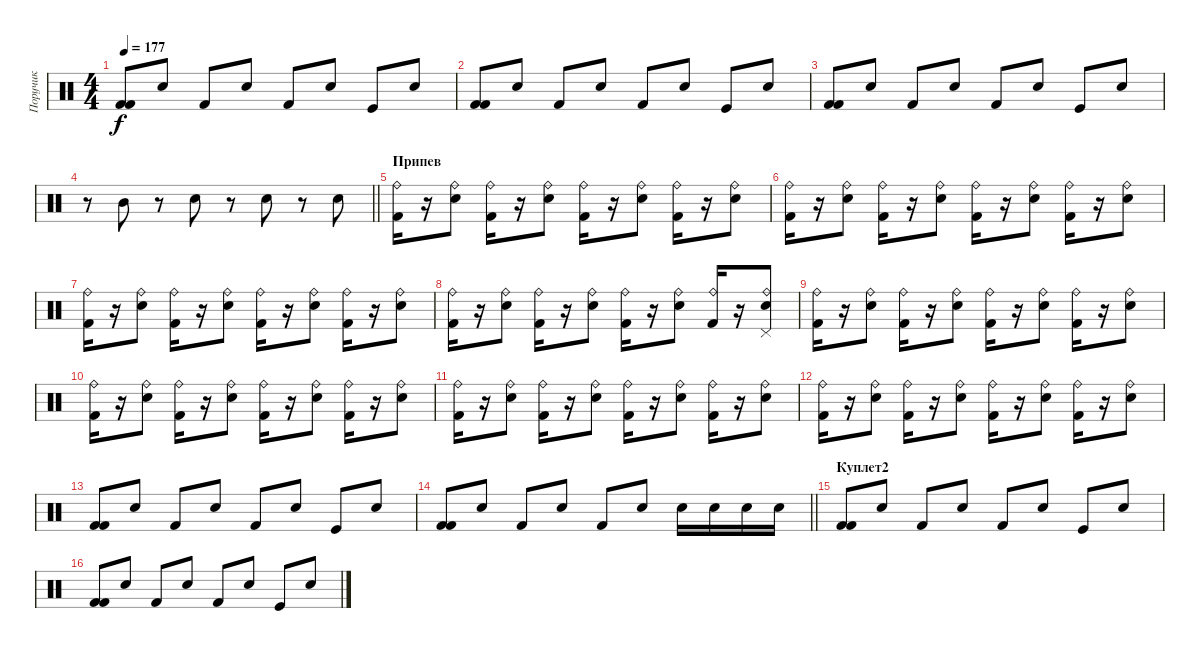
\track ("Поручик" "Поручик") {instrument percussion}
\staff {score}
\articulation defaults
\ts (4 4)
\tempo 177
\clef neutral
\ks c
("Kick (hit) 2" "Kick (hit) 2").8{dy f} "Snare (hit) 2".8 "Kick (hit) 2".8 "Snare (hit) 2".8 "Kick (hit) 2".8 "Snare (hit) 2".8 "Kick (hit)".8 "Snare (hit) 2".8 |
("Kick (hit) 2" "Kick (hit) 2").8 "Snare (hit) 2".8 "Kick (hit) 2".8 "Snare (hit) 2".8 "Kick (hit) 2".8 "Snare (hit) 2".8 "Kick (hit)".8 "Snare (hit) 2".8 |
("Kick (hit) 2" "Kick (hit) 2").8 "Snare (hit) 2".8 "Kick (hit) 2".8 "Snare (hit) 2".8 "Kick (hit) 2".8 "Snare (hit) 2".8 "Kick (hit)".8 "Snare (hit) 2".8 |
\barLineRight lightlight
r.8 "Mid Tom (hit)".8 r.8 "Snare (hit) 2".8 r.8 "Snare (hit) 2".8 r.8 "Snare (hit) 2".8 |
\section ("" "Припев")
("Ride (bell)" "Kick (hit) 2").16 r.16 ("Ride (bell)" "Snare (hit) 2").8 ("Ride (bell)" "Kick (hit) 2").16 r.16 ("Ride (bell)" "Snare (hit) 2").8 ("Ride (bell)" "Kick (hit) 2").16 r.16 ("Ride (bell)" "Snare (hit) 2").8 ("Ride (bell)" "Kick (hit) 2").16 r.16 ("Ride (bell)" "Snare (hit) 2").8 |
("Ride (bell)" "Kick (hit) 2").16 r.16 ("Ride (bell)" "Snare (hit) 2").8 ("Ride (bell)" "Kick (hit) 2").16 r.16 ("Ride (bell)" "Snare (hit) 2").8 ("Ride (bell)" "Kick (hit) 2").16 r.16 ("Ride (bell)" "Snare (hit) 2").8 ("Ride (bell)" "Kick (hit) 2").16 r.16 ("Ride (bell)" "Snare (hit) 2").8 |
("Ride (bell)" "Kick (hit) 2").16 r.16 ("Ride (bell)" "Snare (hit) 2").8 ("Ride (bell)" "Kick (hit) 2").16 r.16 ("Ride (bell)" "Snare (hit) 2").8 ("Ride (bell)" "Kick (hit) 2").16 r.16 ("Ride (bell)" "Snare (hit) 2").8 ("Ride (bell)" "Kick (hit) 2").16 r.16 ("Ride (bell)" "Snare (hit) 2").8 |
("Ride (bell)" "Kick (hit) 2").16 r.16 ("Ride (bell)" "Snare (hit) 2").8 ("Ride (bell)" "Kick (hit) 2").16 r.16 ("Ride (bell)" "Snare (hit) 2").8 ("Ride (bell)" "Kick (hit) 2").16 r.16 ("Ride (bell)" "Snare (hit) 2").8 ("Ride (bell)" "Kick (hit) 2").16 r.16 ("Ride (bell)" "Snare (hit) 2" "Pedal Hi-Hat (hit)").8 |
("Ride (bell)" "Kick (hit) 2").16 r.16 ("Ride (bell)" "Snare (hit) 2").8 ("Ride (bell)" "Kick (hit) 2").16 r.16 ("Ride (bell)" "Snare (hit) 2").8 ("Ride (bell)" "Kick (hit) 2").16 r.16 ("Ride (bell)" "Snare (hit) 2").8 ("Ride (bell)" "Kick (hit) 2").16 r.16 ("Ride (bell)" "Snare (hit) 2").8 |
("Ride (bell)" "Kick (hit) 2").16 r.16 ("Ride (bell)" "Snare (hit) 2").8 ("Ride (bell)" "Kick (hit) 2").16 r.16 ("Ride (bell)" "Snare (hit) 2").8 ("Ride (bell)" "Kick (hit) 2").16 r.16 ("Ride (bell)" "Snare (hit) 2").8 ("Ride (bell)" "Kick (hit) 2").16 r.16 ("Ride (bell)" "Snare (hit) 2").8 |
("Ride (bell)" "Kick (hit) 2").16 r.16 ("Ride (bell)" "Snare (hit) 2").8 ("Ride (bell)" "Kick (hit) 2").16 r.16 ("Ride (bell)" "Snare (hit) 2").8 ("Ride (bell)" "Kick (hit) 2").16 r.16 ("Ride (bell)" "Snare (hit) 2").8 ("Ride (bell)" "Kick (hit) 2").16 r.16 ("Ride (bell)" "Snare (hit) 2").8 |
("Ride (bell)" "Kick (hit) 2").16 r.16 ("Ride (bell)" "Snare (hit) 2").8 ("Ride (bell)" "Kick (hit) 2").16 r.16 ("Ride (bell)" "Snare (hit) 2").8 ("Ride (bell)" "Kick (hit) 2").16 r.16 ("Ride (bell)" "Snare (hit) 2").8 ("Ride (bell)" "Kick (hit) 2").16 r.16 ("Ride (bell)" "Snare (hit) 2").8 |
("Kick (hit) 2" "Kick (hit) 2").8 "Snare (hit) 2".8 "Kick (hit) 2".8 "Snare (hit) 2".8 "Kick (hit) 2".8 "Snare (hit) 2".8 "Kick (hit)".8 "Snare (hit) 2".8 |
\barLineRight lightlight
("Kick (hit) 2" "Kick (hit) 2").8 "Snare (hit) 2".8 "Kick (hit) 2".8 "Snare (hit) 2".8 "Kick (hit) 2".8 "Snare (hit) 2".8 "Snare (hit) 2".16 "Snare (hit) 2".16 "Snare (hit) 2".16 "Snare (hit) 2".16 |
\section ("" "Куплет2")
("Kick (hit) 2" "Kick (hit) 2").8 "Snare (hit) 2".8 "Kick (hit) 2".8 "Snare (hit) 2".8 "Kick (hit) 2".8 "Snare (hit) 2".8 "Kick (hit)".8 "Snare (hit) 2".8 |
("Kick (hit) 2" "Kick (hit) 2").8 "Snare (hit) 2".8 "Kick (hit) 2".8 "Snare (hit) 2".8 "Kick (hit) 2".8 "Snare (hit) 2".8 "Kick (hit)".8 "Snare (hit) 2".8
